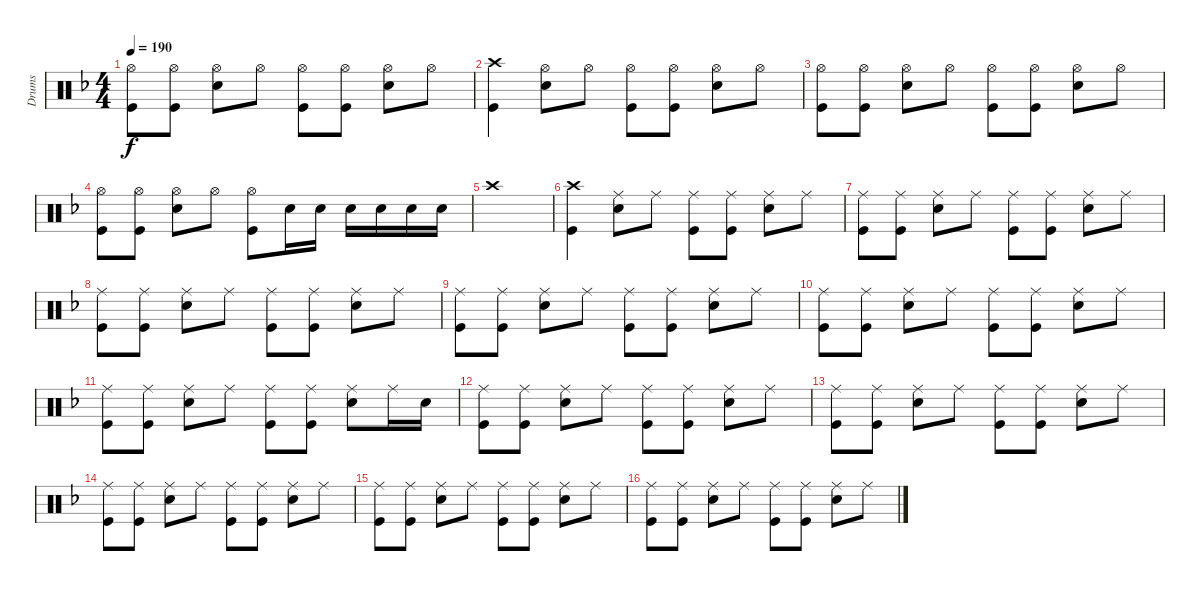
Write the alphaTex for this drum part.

\track ("Drums" "Drums") {instrument percussion}
\staff {score}
\articulation defaults
\ts (4 4)
\tempo 190
\clef neutral
\ks f
("Kick (hit)" "Hi-Hat (open)").8{dy f} ("Hi-Hat (open)" "Kick (hit)").8 ("Snare (hit) 2" "Hi-Hat (open)").8 "Hi-Hat (open)".8 ("Hi-Hat (open)" "Kick (hit)").8 ("Hi-Hat (open)" "Kick (hit)").8 ("Hi-Hat (open)" "Snare (hit) 2").8 "Hi-Hat (open)".8 |
("Kick (hit)" "Crash high (hit)").4 ("Snare (hit) 2" "Hi-Hat (open)").8 "Hi-Hat (open)".8 ("Hi-Hat (open)" "Kick (hit)").8 ("Hi-Hat (open)" "Kick (hit)").8 ("Hi-Hat (open)" "Snare (hit) 2").8 "Hi-Hat (open)".8 |
("Kick (hit)" "Hi-Hat (open)").8 ("Hi-Hat (open)" "Kick (hit)").8 ("Snare (hit) 2" "Hi-Hat (open)").8 "Hi-Hat (open)".8 ("Hi-Hat (open)" "Kick (hit)").8 ("Hi-Hat (open)" "Kick (hit)").8 ("Hi-Hat (open)" "Snare (hit) 2").8 "Hi-Hat (open)".8 |
("Hi-Hat (open)" "Kick (hit)").8 ("Hi-Hat (open)" "Kick (hit)").8 ("Snare (hit) 2" "Hi-Hat (open)").8 "Hi-Hat (open)".8 ("Hi-Hat (open)" "Kick (hit)").8 "Snare (hit) 2".16 "Snare (hit) 2".16 "Snare (hit) 2".16 "Snare (hit) 2".16 "Snare (hit) 2".16 "Snare (hit) 2".16 |
"Crash high (hit)".1 |
("Kick (hit)" "Crash high (hit)").4 ("Snare (hit) 2" "Ride (middle)").8 "Ride (middle)".8 ("Ride (middle)" "Kick (hit)").8 ("Ride (middle)" "Kick (hit)").8 ("Snare (hit) 2" "Ride (middle)").8 "Ride (middle)".8 |
("Kick (hit)" "Ride (middle)").8 ("Ride (middle)" "Kick (hit)").8 ("Snare (hit) 2" "Ride (middle)").8 "Ride (middle)".8 ("Ride (middle)" "Kick (hit)").8 ("Ride (middle)" "Kick (hit)").8 ("Ride (middle)" "Snare (hit) 2").8 "Ride (middle)".8 |
("Kick (hit)" "Ride (middle)").8 ("Ride (middle)" "Kick (hit)").8 ("Snare (hit) 2" "Ride (middle)").8 "Ride (middle)".8 ("Ride (middle)" "Kick (hit)").8 ("Ride (middle)" "Kick (hit)").8 ("Ride (middle)" "Snare (hit) 2").8 "Ride (middle)".8 |
("Kick (hit)" "Ride (middle)").8 ("Ride (middle)" "Kick (hit)").8 ("Snare (hit) 2" "Ride (middle)").8 "Ride (middle)".8 ("Ride (middle)" "Kick (hit)").8 ("Ride (middle)" "Kick (hit)").8 ("Ride (middle)" "Snare (hit) 2").8 "Ride (middle)".8 |
("Kick (hit)" "Ride (middle)").8 ("Ride (middle)" "Kick (hit)").8 ("Snare (hit) 2" "Ride (middle)").8 "Ride (middle)".8 ("Ride (middle)" "Kick (hit)").8 ("Ride (middle)" "Kick (hit)").8 ("Ride (middle)" "Snare (hit) 2").8 "Ride (middle)".8 |
("Kick (hit)" "Ride (middle)").8 ("Ride (middle)" "Kick (hit)").8 ("Snare (hit) 2" "Ride (middle)").8 "Ride (middle)".8 ("Ride (middle)" "Kick (hit)").8 ("Ride (middle)" "Kick (hit)").8 ("Ride (middle)" "Snare (hit) 2").8 "Ride (middle)".16 "Snare (hit) 2".16 |
("Kick (hit)" "Ride (middle)").8 ("Ride (middle)" "Kick (hit)").8 ("Snare (hit) 2" "Ride (middle)").8 "Ride (middle)".8 ("Ride (middle)" "Kick (hit)").8 ("Ride (middle)" "Kick (hit)").8 ("Ride (middle)" "Snare (hit) 2").8 "Ride (middle)".8 |
("Kick (hit)" "Ride (middle)").8 ("Ride (middle)" "Kick (hit)").8 ("Snare (hit) 2" "Ride (middle)").8 "Ride (middle)".8 ("Ride (middle)" "Kick (hit)").8 ("Ride (middle)" "Kick (hit)").8 ("Ride (middle)" "Snare (hit) 2").8 "Ride (middle)".8 |
("Kick (hit)" "Ride (middle)").8 ("Ride (middle)" "Kick (hit)").8 ("Snare (hit) 2" "Ride (middle)").8 "Ride (middle)".8 ("Ride (middle)" "Kick (hit)").8 ("Ride (middle)" "Kick (hit)").8 ("Ride (middle)" "Snare (hit) 2").8 "Ride (middle)".8 |
("Kick (hit)" "Ride (middle)").8 ("Ride (middle)" "Kick (hit)").8 ("Snare (hit) 2" "Ride (middle)").8 "Ride (middle)".8 ("Ride (middle)" "Kick (hit)").8 ("Ride (middle)" "Kick (hit)").8 ("Ride (middle)" "Snare (hit) 2").8 "Ride (middle)".8 |
("Kick (hit)" "Ride (middle)").8 ("Ride (middle)" "Kick (hit)").8 ("Snare (hit) 2" "Ride (middle)").8 "Ride (middle)".8 ("Ride (middle)" "Kick (hit)").8 ("Ride (middle)" "Kick (hit)").8 ("Ride (middle)" "Snare (hit) 2").8 "Ride (middle)".8
